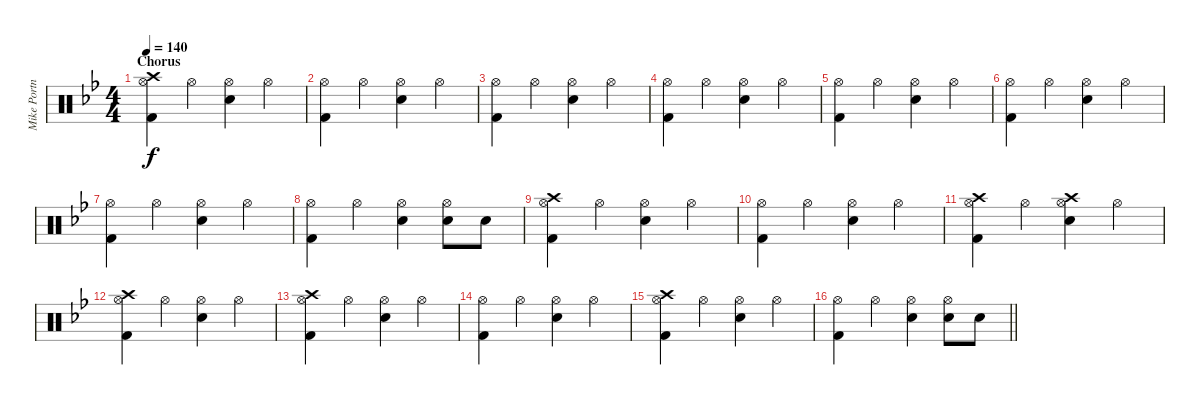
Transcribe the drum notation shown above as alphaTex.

\track ("Mike Portnoy" "Mike Portn") {instrument percussion}
\staff {score}
\articulation defaults
\ts (4 4)
\section ("" "Chorus")
\tempo 140
\clef neutral
\ks bb
("Crash high (hit)" "Hi-Hat (open)" "Kick (hit) 2").4{dy f} "Hi-Hat (open)".4 ("Hi-Hat (open)" "Electric Snare (hit)").4 "Hi-Hat (open)".4 |
("Hi-Hat (open)" "Kick (hit) 2").4 "Hi-Hat (open)".4 ("Hi-Hat (open)" "Electric Snare (hit)").4 "Hi-Hat (open)".4 |
("Hi-Hat (open)" "Kick (hit) 2").4 "Hi-Hat (open)".4 ("Hi-Hat (open)" "Electric Snare (hit)").4 "Hi-Hat (open)".4 |
("Hi-Hat (open)" "Kick (hit) 2").4 "Hi-Hat (open)".4 ("Hi-Hat (open)" "Electric Snare (hit)").4 "Hi-Hat (open)".4 |
("Hi-Hat (open)" "Kick (hit) 2").4 "Hi-Hat (open)".4 ("Hi-Hat (open)" "Electric Snare (hit)").4 "Hi-Hat (open)".4 |
("Hi-Hat (open)" "Kick (hit) 2").4 "Hi-Hat (open)".4 ("Hi-Hat (open)" "Electric Snare (hit)").4 "Hi-Hat (open)".4 |
("Hi-Hat (open)" "Kick (hit) 2").4 "Hi-Hat (open)".4 ("Hi-Hat (open)" "Electric Snare (hit)").4 "Hi-Hat (open)".4 |
("Hi-Hat (open)" "Kick (hit) 2").4 "Hi-Hat (open)".4 ("Hi-Hat (open)" "Electric Snare (hit)").4 ("Hi-Hat (open)" "Electric Snare (hit)").8 "Electric Snare (hit)".8 |
("Crash high (hit)" "Hi-Hat (open)" "Kick (hit) 2").4 "Hi-Hat (open)".4 ("Hi-Hat (open)" "Electric Snare (hit)").4 "Hi-Hat (open)".4 |
("Hi-Hat (open)" "Kick (hit) 2").4 "Hi-Hat (open)".4 ("Hi-Hat (open)" "Electric Snare (hit)").4 "Hi-Hat (open)".4 |
("Crash high (hit)" "Hi-Hat (open)" "Kick (hit) 2").4 "Hi-Hat (open)".4 ("Crash high (hit)" "Hi-Hat (open)" "Electric Snare (hit)").4 "Hi-Hat (open)".4 |
("Crash high (hit)" "Hi-Hat (open)" "Kick (hit) 2").4 "Hi-Hat (open)".4 ("Hi-Hat (open)" "Electric Snare (hit)").4 "Hi-Hat (open)".4 |
("Crash high (hit)" "Hi-Hat (open)" "Kick (hit) 2").4 "Hi-Hat (open)".4 ("Hi-Hat (open)" "Electric Snare (hit)").4 "Hi-Hat (open)".4 |
("Hi-Hat (open)" "Kick (hit) 2").4 "Hi-Hat (open)".4 ("Hi-Hat (open)" "Electric Snare (hit)").4 "Hi-Hat (open)".4 |
("Crash high (hit)" "Hi-Hat (open)" "Kick (hit) 2").4 "Hi-Hat (open)".4 ("Hi-Hat (open)" "Electric Snare (hit)").4 "Hi-Hat (open)".4 |
\barLineRight lightlight
("Hi-Hat (open)" "Kick (hit) 2").4 "Hi-Hat (open)".4 ("Hi-Hat (open)" "Electric Snare (hit)").4 ("Hi-Hat (open)" "Electric Snare (hit)").8 "Electric Snare (hit)".8
